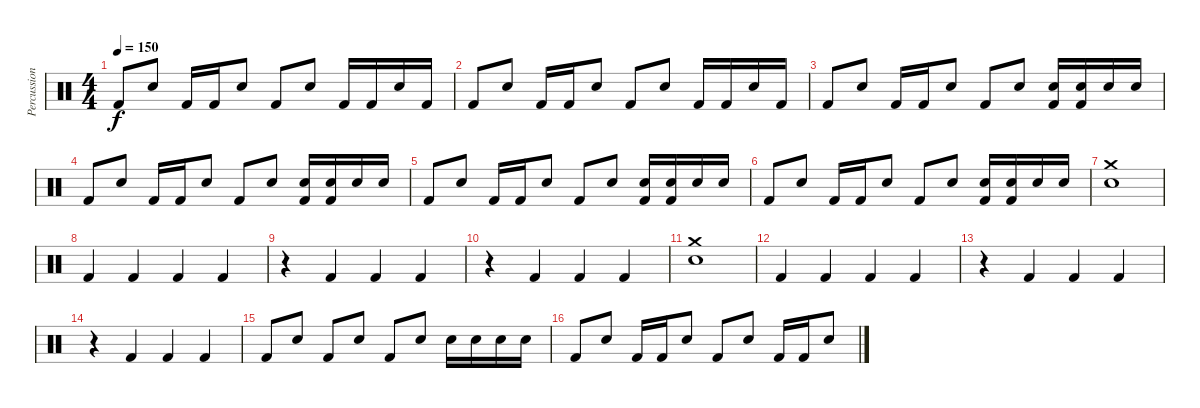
\track ("Percussion" "Percussion") {instrument percussion}
\staff {score}
\articulation defaults
\ts (4 4)
\tempo 150
\clef neutral
\ks c "Kick (hit) 2".8{dy f} "Snare (hit) 2".8 "Kick (hit) 2".16 "Kick (hit) 2".16 "Snare (hit) 2".8 "Kick (hit) 2".8 "Snare (hit) 2".8 "Kick (hit) 2".16 "Kick (hit) 2".16 "Snare (hit) 2".16 "Kick (hit) 2".16
|
"Kick (hit) 2".8 "Snare (hit) 2".8 "Kick (hit) 2".16 "Kick (hit) 2".16 "Snare (hit) 2".8 "Kick (hit) 2".8 "Snare (hit) 2".8 "Kick (hit) 2".16 "Kick (hit) 2".16 "Snare (hit) 2".16 "Kick (hit) 2".16 |
"Kick (hit) 2".8 "Snare (hit) 2".8 "Kick (hit) 2".16 "Kick (hit) 2".16 "Snare (hit) 2".8 "Kick (hit) 2".8 "Snare (hit) 2".8 ("Kick (hit) 2" "Snare (hit) 2").16 ("Kick (hit) 2" "Snare (hit) 2").16 "Snare (hit) 2".16 "Snare (hit) 2".16 |
"Kick (hit) 2".8 "Snare (hit) 2".8 "Kick (hit) 2".16 "Kick (hit) 2".16 "Snare (hit) 2".8 "Kick (hit) 2".8 "Snare (hit) 2".8 ("Kick (hit) 2" "Snare (hit) 2").16 ("Kick (hit) 2" "Snare (hit) 2").16 "Snare (hit) 2".16 "Snare (hit) 2".16 |
"Kick (hit) 2".8 "Snare (hit) 2".8 "Kick (hit) 2".16 "Kick (hit) 2".16 "Snare (hit) 2".8 "Kick (hit) 2".8 "Snare (hit) 2".8 ("Kick (hit) 2" "Snare (hit) 2").16 ("Kick (hit) 2" "Snare (hit) 2").16 "Snare (hit) 2".16 "Snare (hit) 2".16 |
"Kick (hit) 2".8 "Snare (hit) 2".8 "Kick (hit) 2".16 "Kick (hit) 2".16 "Snare (hit) 2".8 "Kick (hit) 2".8 "Snare (hit) 2".8 ("Kick (hit) 2" "Snare (hit) 2").16 ("Kick (hit) 2" "Snare (hit) 2").16 "Snare (hit) 2".16 "Snare (hit) 2".16 |
("Snare (hit) 2" "Crash medium (hit)").1 |
"Kick (hit) 2".4 "Kick (hit) 2".4 "Kick (hit) 2".4 "Kick (hit) 2".4 |
r.4 "Kick (hit) 2".4 "Kick (hit) 2".4 "Kick (hit) 2".4 |
r.4 "Kick (hit) 2".4 "Kick (hit) 2".4 "Kick (hit) 2".4 |
("Snare (hit) 2" "Crash medium (hit)").1 |
"Kick (hit) 2".4 "Kick (hit) 2".4 "Kick (hit) 2".4 "Kick (hit) 2".4 |
r.4 "Kick (hit) 2".4 "Kick (hit) 2".4 "Kick (hit) 2".4 |
r.4 "Kick (hit) 2".4 "Kick (hit) 2".4 "Kick (hit) 2".4 |
"Kick (hit) 2".8 "Snare (hit) 2".8 "Kick (hit) 2".8 "Snare (hit) 2".8 "Kick (hit) 2".8 "Snare (hit) 2".8 "Snare (hit) 2".16 "Snare (hit) 2".16 "Snare (hit) 2".16 "Snare (hit) 2".16 |
"Kick (hit) 2".8 "Snare (hit) 2".8 "Kick (hit) 2".16 "Kick (hit) 2".16 "Snare (hit) 2".8 "Kick (hit) 2".8 "Snare (hit) 2".8 "Kick (hit) 2".16 "Kick (hit) 2".16 "Snare (hit) 2".8
